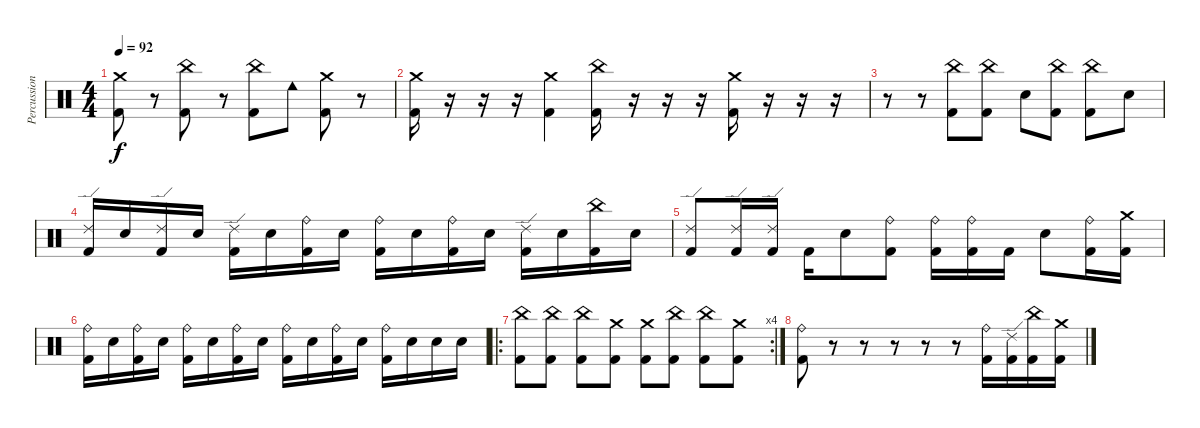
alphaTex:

\track ("Percussion" "Percussion") {instrument percussion}
\staff {score}
\articulation defaults
\ts (4 4)
\tempo 92
\clef neutral
\ks c
("Kick (hit) 2" "Crash medium (hit)").8{dy f} r.8 ("China (hit)" "Kick (hit) 2").8 r.8 ("China (hit)" "Kick (hit) 2").8 "Cowbell low (hit)".8 ("Crash medium (hit)" "Kick (hit) 2").8 r.8 |
("Kick (hit) 2" "Crash medium (hit)").16 r.16 r.16 r.16 ("Kick (hit) 2" "Crash medium (hit)").4 ("China (hit)" "Kick (hit) 2").16 r.16 r.16 r.16 ("Crash medium (hit)" "Kick (hit) 2").16 r.16 r.16 r.16 |
r.8 r.8 ("China (hit)" "Kick (hit) 2").8 ("China (hit)" "Kick (hit) 2").8 "Snare (hit) 2".8 ("China (hit)" "Kick (hit) 2").8 ("China (hit)" "Kick (hit) 2").8 "Snare (hit) 2".8 |
("Ride (edge) 2" "Kick (hit) 2").16 "Electric Snare (hit)".16 ("Ride (edge) 2" "Kick (hit) 2").16 "Electric Snare (hit)".16 ("Ride (edge) 2" "Kick (hit) 2").16 "Electric Snare (hit)".16 ("Ride (bell)" "Kick (hit) 2").16 "Electric Snare (hit)".16 ("Ride (bell)" "Kick (hit) 2").16 "Electric Snare (hit)".16 ("Ride (bell)" "Kick (hit) 2").16 "Electric Snare (hit)".16 ("Ride (edge) 2" "Kick (hit) 2").16 "Electric Snare (hit)".16 ("China (hit)" "Kick (hit) 2").16 "Electric Snare (hit)".16 |
("Ride (edge) 2" "Kick (hit) 2").8 ("Ride (edge) 2" "Kick (hit) 2").16 ("Ride (edge) 2" "Kick (hit) 2").16 "Kick (hit) 2".16 "Electric Snare (hit)".8 ("Ride (bell)" "Kick (hit) 2").8 ("Ride (bell)" "Kick (hit) 2").16 ("Ride (bell)" "Kick (hit) 2").16 "Kick (hit) 2".16 "Electric Snare (hit)".8 ("Ride (bell)" "Kick (hit) 2").16 ("Crash medium (hit)" "Kick (hit) 2").16 |
("Ride (bell)" "Kick (hit) 2").16 "Electric Snare (hit)".16 ("Ride (bell)" "Kick (hit) 2").16 "Electric Snare (hit)".16 ("Ride (bell)" "Kick (hit) 2").16 "Electric Snare (hit)".16 ("Ride (bell)" "Kick (hit) 2").16 "Electric Snare (hit)".16 ("Ride (bell)" "Kick (hit) 2").16 "Snare (hit) 2".16 ("Ride (bell)" "Kick (hit) 2").16 "Snare (hit) 2".16 ("Ride (bell)" "Kick (hit) 2").16 "Snare (hit) 2".16 "Electric Snare (hit)".16 "Snare (hit) 2".16 |
\ro
\rc 4
("China (hit)" "Kick (hit) 2").8 ("China (hit)" "Kick (hit) 2").8 ("China (hit)" "Kick (hit) 2").8 ("Crash medium (hit)" "Kick (hit) 2").8 ("Crash medium (hit)" "Kick (hit) 2").8 ("China (hit)" "Kick (hit) 2").8 ("China (hit)" "Kick (hit) 2").8 ("Crash medium (hit)" "Kick (hit) 2").8 |
("Ride (bell)" "Kick (hit) 2").8 r.8 r.8 r.8 r.8 r.8 ("Kick (hit) 2" "Ride (bell)").16 ("Kick (hit) 2" "Ride (edge) 2").16 ("Kick (hit) 2" "China (hit)").16 ("Kick (hit) 2" "Crash medium (hit)").16
